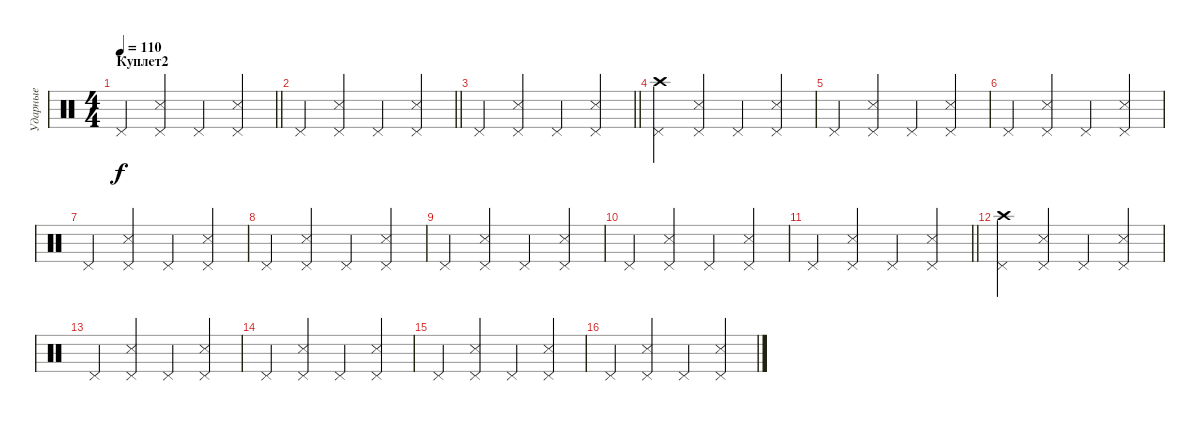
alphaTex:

\track ("Ударные" "Ударные") {instrument percussion}
\staff {score}
\articulation defaults
\ts (4 4)
\section ("" "Куплет2")
\tempo 110
\clef neutral
\barLineRight lightlight
\ks c "Pedal Hi-Hat (hit)".4{dy f}
("Pedal Hi-Hat (hit)" "Snare (side stick) 3").4 "Pedal Hi-Hat (hit)".4 ("Pedal Hi-Hat (hit)" "Snare (side stick) 3").4 |
\barLineRight lightlight "Pedal Hi-Hat (hit)".4
("Pedal Hi-Hat (hit)" "Snare (side stick) 3").4 "Pedal Hi-Hat (hit)".4 ("Pedal Hi-Hat (hit)" "Snare (side stick) 3").4 |
\barLineRight lightlight "Pedal Hi-Hat (hit)".4
("Pedal Hi-Hat (hit)" "Snare (side stick) 3").4 "Pedal Hi-Hat (hit)".4 ("Pedal Hi-Hat (hit)" "Snare (side stick) 3").4 |
("Pedal Hi-Hat (hit)" "Crash high (hit)").4 ("Pedal Hi-Hat (hit)" "Snare (side stick) 3").4 "Pedal Hi-Hat (hit)".4 ("Pedal Hi-Hat (hit)" "Snare (side stick) 3").4 |
"Pedal Hi-Hat (hit)".4 ("Pedal Hi-Hat (hit)" "Snare (side stick) 3").4 "Pedal Hi-Hat (hit)".4 ("Pedal Hi-Hat (hit)" "Snare (side stick) 3").4 |
"Pedal Hi-Hat (hit)".4 ("Pedal Hi-Hat (hit)" "Snare (side stick) 3").4 "Pedal Hi-Hat (hit)".4 ("Pedal Hi-Hat (hit)" "Snare (side stick) 3").4 |
"Pedal Hi-Hat (hit)".4 ("Pedal Hi-Hat (hit)" "Snare (side stick) 3").4 "Pedal Hi-Hat (hit)".4 ("Pedal Hi-Hat (hit)" "Snare (side stick) 3").4 |
"Pedal Hi-Hat (hit)".4 ("Pedal Hi-Hat (hit)" "Snare (side stick) 3").4 "Pedal Hi-Hat (hit)".4 ("Pedal Hi-Hat (hit)" "Snare (side stick) 3").4 |
"Pedal Hi-Hat (hit)".4 ("Pedal Hi-Hat (hit)" "Snare (side stick) 3").4 "Pedal Hi-Hat (hit)".4 ("Pedal Hi-Hat (hit)" "Snare (side stick) 3").4 |
"Pedal Hi-Hat (hit)".4 ("Pedal Hi-Hat (hit)" "Snare (side stick) 3").4 "Pedal Hi-Hat (hit)".4 ("Pedal Hi-Hat (hit)" "Snare (side stick) 3").4 |
\barLineRight lightlight "Pedal Hi-Hat (hit)".4
("Pedal Hi-Hat (hit)" "Snare (side stick) 3").4 "Pedal Hi-Hat (hit)".4 ("Pedal Hi-Hat (hit)" "Snare (side stick) 3").4 |
("Pedal Hi-Hat (hit)" "Crash high (hit)").4 ("Pedal Hi-Hat (hit)" "Snare (side stick) 3").4 "Pedal Hi-Hat (hit)".4 ("Pedal Hi-Hat (hit)" "Snare (side stick) 3").4 |
"Pedal Hi-Hat (hit)".4 ("Pedal Hi-Hat (hit)" "Snare (side stick) 3").4 "Pedal Hi-Hat (hit)".4 ("Pedal Hi-Hat (hit)" "Snare (side stick) 3").4 |
"Pedal Hi-Hat (hit)".4 ("Pedal Hi-Hat (hit)" "Snare (side stick) 3").4 "Pedal Hi-Hat (hit)".4 ("Pedal Hi-Hat (hit)" "Snare (side stick) 3").4 |
"Pedal Hi-Hat (hit)".4 ("Pedal Hi-Hat (hit)" "Snare (side stick) 3").4 "Pedal Hi-Hat (hit)".4 ("Pedal Hi-Hat (hit)" "Snare (side stick) 3").4 |
"Pedal Hi-Hat (hit)".4 ("Pedal Hi-Hat (hit)" "Snare (side stick) 3").4 "Pedal Hi-Hat (hit)".4 ("Pedal Hi-Hat (hit)" "Snare (side stick) 3").4
